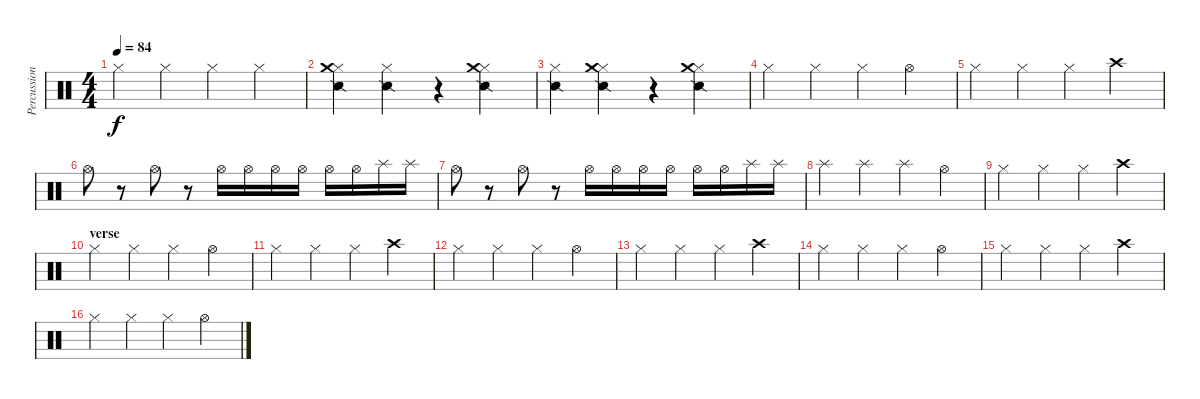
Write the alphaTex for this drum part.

\track ("Percussion" "Percussion") {instrument percussion}
\staff {score}
\articulation defaults
\ts (4 4)
\tempo 84
\clef neutral
\ks c "Hi-Hat (closed)".4{dy f} "Hi-Hat (closed)".4 "Hi-Hat (closed)".4 "Hi-Hat (closed)".4
|
("Snare (side stick) 2" "Hi-Hat (closed)" "Crash medium (hit)").4 ("Snare (side stick) 2" "Hi-Hat (closed)").4 r.4 ("Snare (side stick) 2" "Hi-Hat (closed)" "Crash medium (hit)").4 |
("Snare (side stick) 2" "Hi-Hat (closed)").4 ("Snare (side stick) 2" "Hi-Hat (closed)" "Crash medium (hit)").4 r.4 ("Snare (side stick) 2" "Hi-Hat (closed)" "Crash medium (hit)").4 |
"Hi-Hat (closed)".4 "Hi-Hat (closed)".4 "Hi-Hat (closed)".4 "Hi-Hat (open)".4 |
"Hi-Hat (closed)".4 "Hi-Hat (closed)".4 "Hi-Hat (closed)".4 "Crash high (hit)".4 |
"Hi-Hat (open)".8 r.8 "Hi-Hat (open)".8 r.8 "Hi-Hat (open)".16 "Hi-Hat (open)".16 "Hi-Hat (open)".16 "Hi-Hat (open)".16 "Hi-Hat (open)".16 "Hi-Hat (open)".16 "Splash (hit)".16 "Splash (hit)".16 |
"Hi-Hat (open)".8 r.8 "Hi-Hat (open)".8 r.8 "Hi-Hat (open)".16 "Hi-Hat (open)".16 "Hi-Hat (open)".16 "Hi-Hat (open)".16 "Hi-Hat (open)".16 "Hi-Hat (open)".16 "Splash (hit)".16 "Splash (hit)".16 |
"Splash (hit)".4 "Splash (hit)".4 "Splash (hit)".4 "Hi-Hat (open)".4 |
"Hi-Hat (closed)".4 "Hi-Hat (closed)".4 "Hi-Hat (closed)".4 "Crash high (hit)".4 |
\section ("" "verse")
"Hi-Hat (closed)".4 "Hi-Hat (closed)".4 "Hi-Hat (closed)".4 "Hi-Hat (open)".4 |
"Hi-Hat (closed)".4 "Hi-Hat (closed)".4 "Hi-Hat (closed)".4 "Crash high (hit)".4 |
"Hi-Hat (closed)".4 "Hi-Hat (closed)".4 "Hi-Hat (closed)".4 "Hi-Hat (open)".4 |
\section ("" "")
"Hi-Hat (closed)".4 "Hi-Hat (closed)".4 "Hi-Hat (closed)".4 "Crash high (hit)".4 |
"Hi-Hat (closed)".4 "Hi-Hat (closed)".4 "Hi-Hat (closed)".4 "Hi-Hat (open)".4 |
"Hi-Hat (closed)".4 "Hi-Hat (closed)".4 "Hi-Hat (closed)".4 "Crash high (hit)".4 |
"Hi-Hat (closed)".4 "Hi-Hat (closed)".4 "Hi-Hat (closed)".4 "Hi-Hat (open)".4
